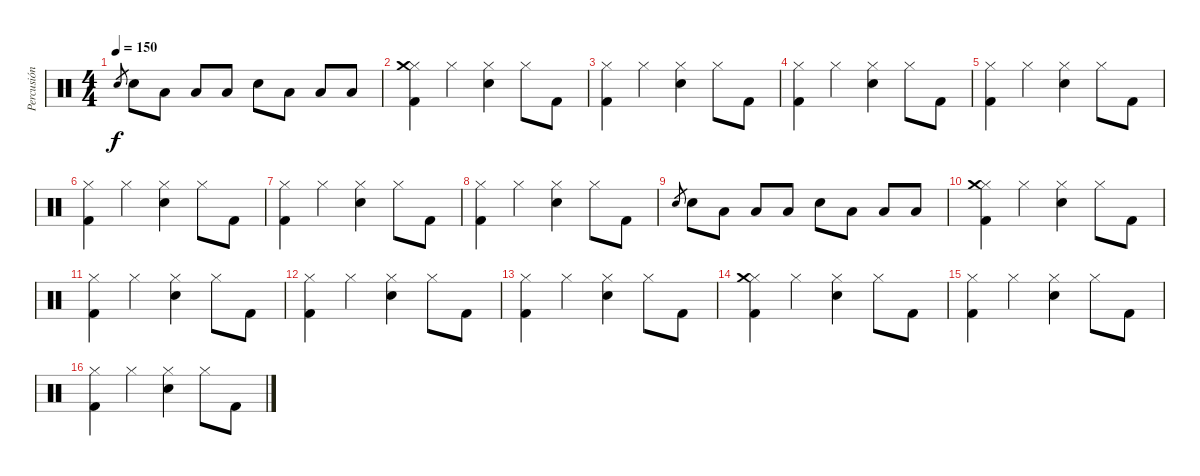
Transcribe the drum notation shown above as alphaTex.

\track ("Percusión" "Percusión") {instrument percussion}
\staff {score}
\articulation defaults
\ts (4 4)
\tempo 150
\clef neutral
\ks c "Snare (hit) 2".8{gr dy f} "Snare (hit) 2".8 "Low Tom (hit)".8 "Low Tom (hit)".8 "Low Tom (hit)".8 "Snare (hit) 2".8 "Low Tom (hit)".8 "Low Tom (hit)".8 "Low Tom (hit)".8
|
("Hi-Hat (closed)" "Crash medium (hit)" "Kick (hit) 2").4 "Hi-Hat (closed)".4 ("Hi-Hat (closed)" "Snare (hit) 2").4 "Hi-Hat (closed)".8 "Kick (hit) 2".8 |
("Hi-Hat (closed)" "Kick (hit) 2").4 "Hi-Hat (closed)".4 ("Hi-Hat (closed)" "Snare (hit) 2").4 "Hi-Hat (closed)".8 "Kick (hit) 2".8 |
("Hi-Hat (closed)" "Kick (hit) 2").4 "Hi-Hat (closed)".4 ("Hi-Hat (closed)" "Snare (hit) 2").4 "Hi-Hat (closed)".8 "Kick (hit) 2".8 |
("Hi-Hat (closed)" "Kick (hit) 2").4 "Hi-Hat (closed)".4 ("Hi-Hat (closed)" "Snare (hit) 2").4 "Hi-Hat (closed)".8 "Kick (hit) 2".8 |
("Hi-Hat (closed)" "Kick (hit) 2").4 "Hi-Hat (closed)".4 ("Hi-Hat (closed)" "Snare (hit) 2").4 "Hi-Hat (closed)".8 "Kick (hit) 2".8 |
("Hi-Hat (closed)" "Kick (hit) 2").4 "Hi-Hat (closed)".4 ("Hi-Hat (closed)" "Snare (hit) 2").4 "Hi-Hat (closed)".8 "Kick (hit) 2".8 |
("Hi-Hat (closed)" "Kick (hit) 2").4 "Hi-Hat (closed)".4 ("Hi-Hat (closed)" "Snare (hit) 2").4 "Hi-Hat (closed)".8 "Kick (hit) 2".8 |
"Snare (hit) 2".8{gr} "Snare (hit) 2".8 "Low Tom (hit)".8 "Low Tom (hit)".8 "Low Tom (hit)".8 "Snare (hit) 2".8 "Low Tom (hit)".8 "Low Tom (hit)".8 "Low Tom (hit)".8 |
\section ("" "")
("Hi-Hat (closed)" "Crash medium (hit)" "Kick (hit) 2").4 "Hi-Hat (closed)".4 ("Hi-Hat (closed)" "Snare (hit) 2").4 "Hi-Hat (closed)".8 "Kick (hit) 2".8 |
("Hi-Hat (closed)" "Kick (hit) 2").4 "Hi-Hat (closed)".4 ("Hi-Hat (closed)" "Snare (hit) 2").4 "Hi-Hat (closed)".8 "Kick (hit) 2".8 |
("Hi-Hat (closed)" "Kick (hit) 2").4 "Hi-Hat (closed)".4 ("Hi-Hat (closed)" "Snare (hit) 2").4 "Hi-Hat (closed)".8 "Kick (hit) 2".8 |
("Hi-Hat (closed)" "Kick (hit) 2").4 "Hi-Hat (closed)".4 ("Hi-Hat (closed)" "Snare (hit) 2").4 "Hi-Hat (closed)".8 "Kick (hit) 2".8 |
("Hi-Hat (closed)" "Crash medium (hit)" "Kick (hit) 2").4 "Hi-Hat (closed)".4 ("Hi-Hat (closed)" "Snare (hit) 2").4 "Hi-Hat (closed)".8 "Kick (hit) 2".8 |
("Hi-Hat (closed)" "Kick (hit) 2").4 "Hi-Hat (closed)".4 ("Hi-Hat (closed)" "Snare (hit) 2").4 "Hi-Hat (closed)".8 "Kick (hit) 2".8 |
("Hi-Hat (closed)" "Kick (hit) 2").4 "Hi-Hat (closed)".4 ("Hi-Hat (closed)" "Snare (hit) 2").4 "Hi-Hat (closed)".8 "Kick (hit) 2".8
